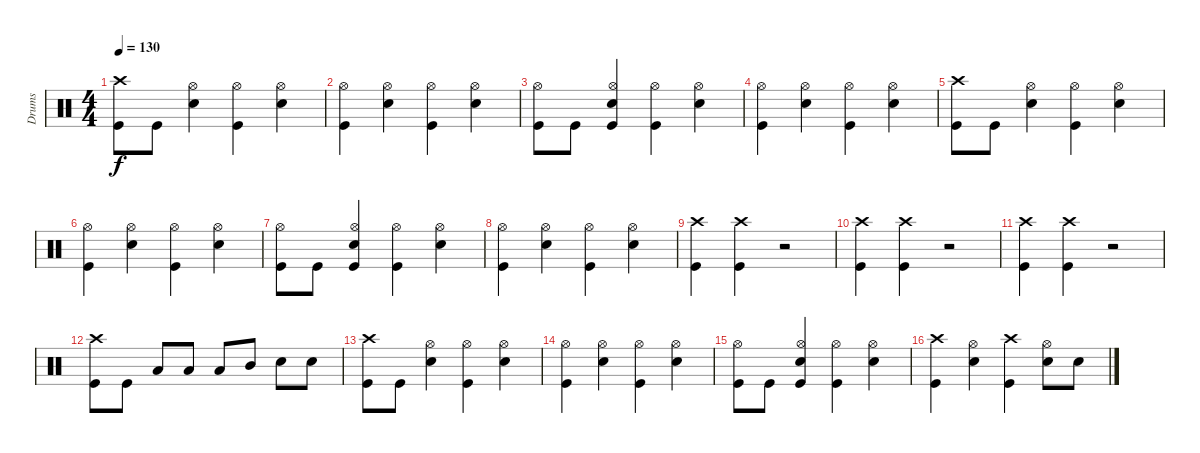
\track ("Drums" "Drums") {instrument percussion}
\staff {score}
\articulation defaults
\ts (4 4)
\tempo 130
\clef neutral
\ks c
("Crash high (hit)" "Kick (hit)").8{dy f} "Kick (hit)".8 ("Hi-Hat (open)" "Snare (hit) 2").4 ("Hi-Hat (open)" "Kick (hit)").4 ("Hi-Hat (open)" "Snare (hit) 2").4 |
("Hi-Hat (open)" "Kick (hit)").4 ("Hi-Hat (open)" "Snare (hit) 2").4 ("Hi-Hat (open)" "Kick (hit)").4 ("Hi-Hat (open)" "Snare (hit) 2").4 |
("Hi-Hat (open)" "Kick (hit)").8 "Kick (hit)".8 ("Hi-Hat (open)" "Snare (hit) 2" "Kick (hit)").4 ("Hi-Hat (open)" "Kick (hit)").4 ("Hi-Hat (open)" "Snare (hit) 2").4 |
("Hi-Hat (open)" "Kick (hit)").4 ("Hi-Hat (open)" "Snare (hit) 2").4 ("Hi-Hat (open)" "Kick (hit)").4 ("Hi-Hat (open)" "Snare (hit) 2").4 |
("Crash high (hit)" "Kick (hit)").8 "Kick (hit)".8 ("Hi-Hat (open)" "Snare (hit) 2").4 ("Hi-Hat (open)" "Kick (hit)").4 ("Hi-Hat (open)" "Snare (hit) 2").4 |
("Hi-Hat (open)" "Kick (hit)").4 ("Hi-Hat (open)" "Snare (hit) 2").4 ("Hi-Hat (open)" "Kick (hit)").4 ("Hi-Hat (open)" "Snare (hit) 2").4 |
("Hi-Hat (open)" "Kick (hit)").8 "Kick (hit)".8 ("Hi-Hat (open)" "Snare (hit) 2" "Kick (hit)").4 ("Hi-Hat (open)" "Kick (hit)").4 ("Hi-Hat (open)" "Snare (hit) 2").4 |
("Hi-Hat (open)" "Kick (hit)").4 ("Hi-Hat (open)" "Snare (hit) 2").4 ("Hi-Hat (open)" "Kick (hit)").4 ("Hi-Hat (open)" "Snare (hit) 2").4 |
("Crash high (hit)" "Kick (hit)").4 ("Crash high (hit)" "Kick (hit)").4 r.2 |
("Crash high (hit)" "Kick (hit)").4 ("Crash high (hit)" "Kick (hit)").4 r.2 |
("Crash high (hit)" "Kick (hit)").4 ("Crash high (hit)" "Kick (hit)").4 r.2 |
("Crash high (hit)" "Kick (hit)").8 "Kick (hit)".8 "Low Floor Tom (hit)".8 "Low Floor Tom (hit)".8 "Low Tom (hit)".8 "Mid Tom (hit)".8 "Snare (hit) 2".8 "Snare (hit) 2".8 |
("Crash high (hit)" "Kick (hit)").8 "Kick (hit)".8 ("Hi-Hat (open)" "Snare (hit) 2").4 ("Hi-Hat (open)" "Kick (hit)").4 ("Hi-Hat (open)" "Snare (hit) 2").4 |
("Hi-Hat (open)" "Kick (hit)").4 ("Hi-Hat (open)" "Snare (hit) 2").4 ("Hi-Hat (open)" "Kick (hit)").4 ("Hi-Hat (open)" "Snare (hit) 2").4 |
("Hi-Hat (open)" "Kick (hit)").8 "Kick (hit)".8 ("Hi-Hat (open)" "Snare (hit) 2" "Kick (hit)").4 ("Hi-Hat (open)" "Kick (hit)").4 ("Hi-Hat (open)" "Snare (hit) 2").4 |
("Crash high (hit)" "Kick (hit)").4 ("Hi-Hat (open)" "Snare (hit) 2").4 ("Crash high (hit)" "Kick (hit)").4 ("Hi-Hat (open)" "Snare (hit) 2").8 "Snare (hit) 2".8
